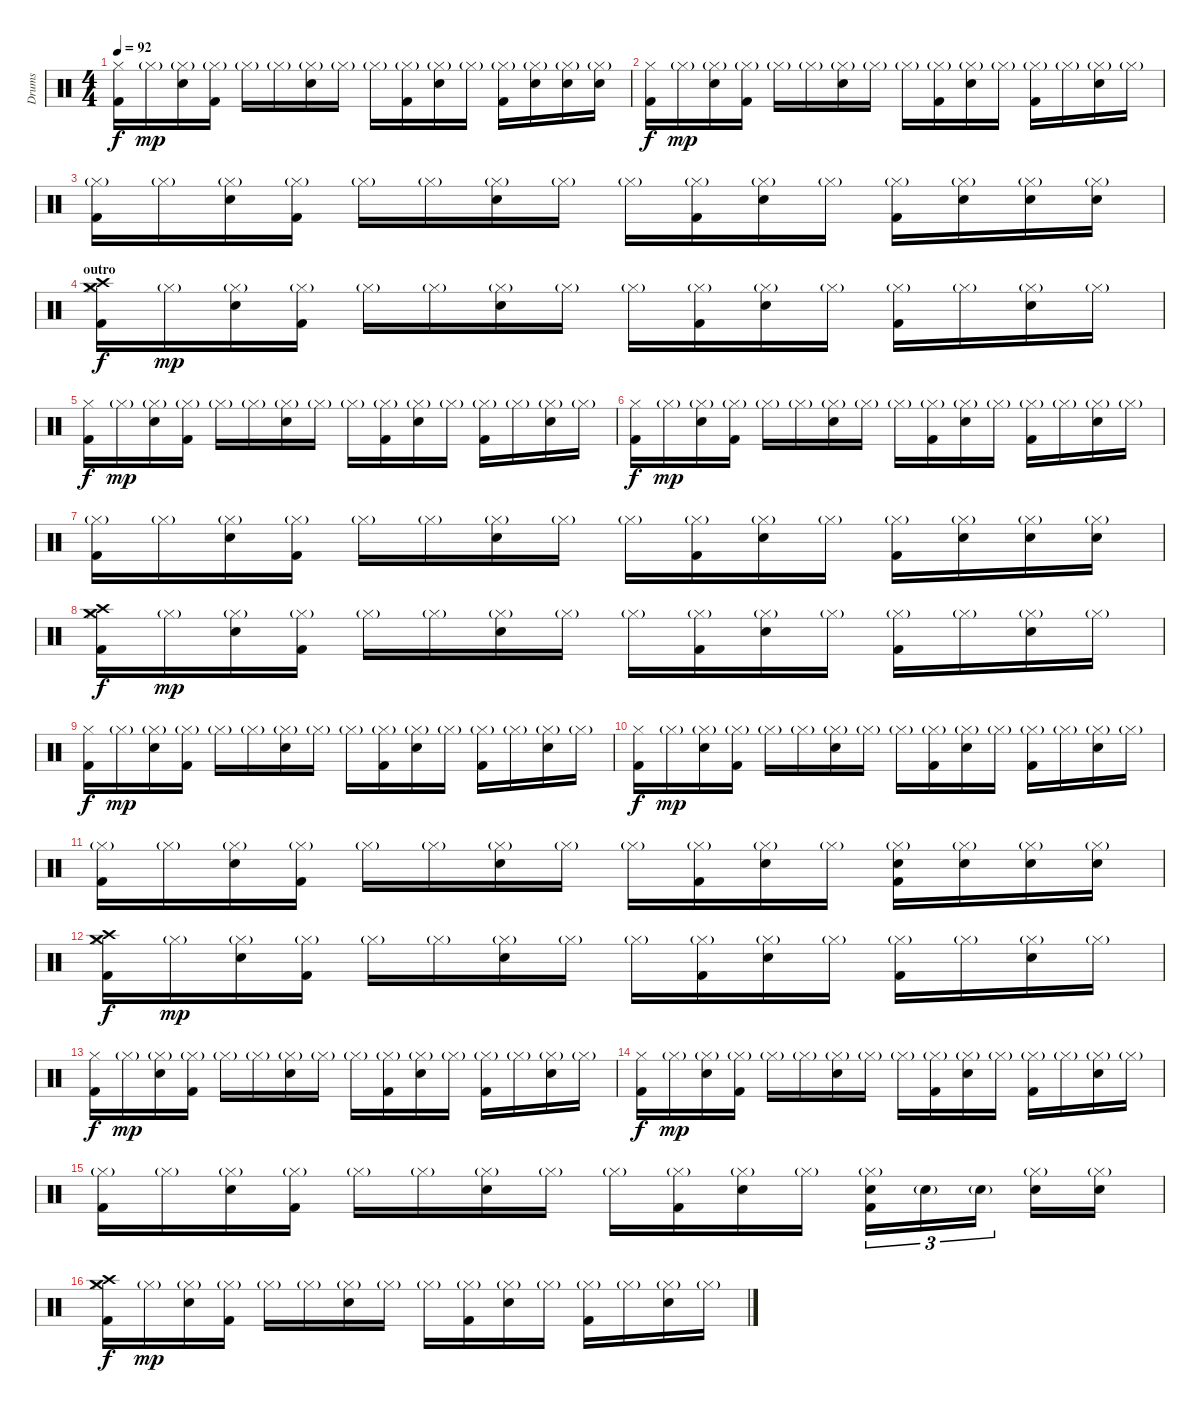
\track ("Drums" "Drums") {instrument percussion}
\staff {score}
\articulation defaults
\ts (4 4)
\tempo 92
\clef neutral
\ks c
("Hi-Hat (closed)" "Kick (hit) 2").16{dy f} "Hi-Hat (closed)"{g}.16{dy mp} ("Hi-Hat (closed)"{g} "Snare (hit) 2").16 ("Hi-Hat (closed)"{g} "Kick (hit) 2").16 "Hi-Hat (closed)"{g}.16 "Hi-Hat (closed)"{g}.16 ("Hi-Hat (closed)"{g} "Snare (hit) 2").16 "Hi-Hat (closed)"{g}.16 "Hi-Hat (closed)"{g}.16 ("Hi-Hat (closed)"{g} "Kick (hit) 2").16 ("Hi-Hat (closed)"{g} "Snare (hit) 2").16 "Hi-Hat (closed)"{g}.16 ("Hi-Hat (closed)"{g} "Kick (hit) 2").16 ("Hi-Hat (closed)"{g} "Snare (hit) 2").16 ("Hi-Hat (closed)"{g} "Snare (hit) 2").16 ("Hi-Hat (closed)"{g} "Snare (hit) 2").16 |
("Hi-Hat (closed)" "Kick (hit) 2").16{dy f} "Hi-Hat (closed)"{g}.16{dy mp} ("Hi-Hat (closed)"{g} "Snare (hit) 2").16 ("Hi-Hat (closed)"{g} "Kick (hit) 2").16 "Hi-Hat (closed)"{g}.16 "Hi-Hat (closed)"{g}.16 ("Hi-Hat (closed)"{g} "Snare (hit) 2").16 "Hi-Hat (closed)"{g}.16 "Hi-Hat (closed)"{g}.16 ("Hi-Hat (closed)"{g} "Kick (hit) 2").16 ("Hi-Hat (closed)"{g} "Snare (hit) 2").16 "Hi-Hat (closed)"{g}.16 ("Hi-Hat (closed)"{g} "Kick (hit) 2").16 "Hi-Hat (closed)"{g}.16 ("Hi-Hat (closed)"{g} "Snare (hit) 2").16 "Hi-Hat (closed)"{g}.16 |
("Hi-Hat (closed)"{g} "Kick (hit) 2").16 "Hi-Hat (closed)"{g}.16 ("Hi-Hat (closed)"{g} "Snare (hit) 2").16 ("Hi-Hat (closed)"{g} "Kick (hit) 2").16 "Hi-Hat (closed)"{g}.16 "Hi-Hat (closed)"{g}.16 ("Hi-Hat (closed)"{g} "Snare (hit) 2").16 "Hi-Hat (closed)"{g}.16 "Hi-Hat (closed)"{g}.16 ("Hi-Hat (closed)"{g} "Kick (hit) 2").16 ("Hi-Hat (closed)"{g} "Snare (hit) 2").16 "Hi-Hat (closed)"{g}.16 ("Hi-Hat (closed)"{g} "Kick (hit) 2").16 ("Hi-Hat (closed)"{g} "Snare (hit) 2").16 ("Hi-Hat (closed)"{g} "Snare (hit) 2").16 ("Hi-Hat (closed)"{g} "Snare (hit) 2").16 |
\section ("" "outro")
("Hi-Hat (closed)" "Kick (hit) 2" "Crash medium (hit)" "Crash high (hit)").16{dy f} "Hi-Hat (closed)"{g}.16{dy mp} ("Hi-Hat (closed)"{g} "Snare (hit) 2").16 ("Hi-Hat (closed)"{g} "Kick (hit) 2").16 "Hi-Hat (closed)"{g}.16 "Hi-Hat (closed)"{g}.16 ("Hi-Hat (closed)"{g} "Snare (hit) 2").16 "Hi-Hat (closed)"{g}.16 "Hi-Hat (closed)"{g}.16 ("Hi-Hat (closed)"{g} "Kick (hit) 2").16 ("Hi-Hat (closed)"{g} "Snare (hit) 2").16 "Hi-Hat (closed)"{g}.16 ("Hi-Hat (closed)"{g} "Kick (hit) 2").16 "Hi-Hat (closed)"{g}.16 ("Hi-Hat (closed)"{g} "Snare (hit) 2").16 "Hi-Hat (closed)"{g}.16 |
("Hi-Hat (closed)" "Kick (hit) 2").16{dy f} "Hi-Hat (closed)"{g}.16{dy mp} ("Hi-Hat (closed)"{g} "Snare (hit) 2").16 ("Hi-Hat (closed)"{g} "Kick (hit) 2").16 "Hi-Hat (closed)"{g}.16 "Hi-Hat (closed)"{g}.16 ("Hi-Hat (closed)"{g} "Snare (hit) 2").16 "Hi-Hat (closed)"{g}.16 "Hi-Hat (closed)"{g}.16 ("Hi-Hat (closed)"{g} "Kick (hit) 2").16 ("Hi-Hat (closed)"{g} "Snare (hit) 2").16 "Hi-Hat (closed)"{g}.16 ("Hi-Hat (closed)"{g} "Kick (hit) 2").16 "Hi-Hat (closed)"{g}.16 ("Hi-Hat (closed)"{g} "Snare (hit) 2").16 "Hi-Hat (closed)"{g}.16 |
("Hi-Hat (closed)" "Kick (hit) 2").16{dy f} "Hi-Hat (closed)"{g}.16{dy mp} ("Hi-Hat (closed)"{g} "Snare (hit) 2").16 ("Hi-Hat (closed)"{g} "Kick (hit) 2").16 "Hi-Hat (closed)"{g}.16 "Hi-Hat (closed)"{g}.16 ("Hi-Hat (closed)"{g} "Snare (hit) 2").16 "Hi-Hat (closed)"{g}.16 "Hi-Hat (closed)"{g}.16 ("Hi-Hat (closed)"{g} "Kick (hit) 2").16 ("Hi-Hat (closed)"{g} "Snare (hit) 2").16 "Hi-Hat (closed)"{g}.16 ("Hi-Hat (closed)"{g} "Kick (hit) 2").16 "Hi-Hat (closed)"{g}.16 ("Hi-Hat (closed)"{g} "Snare (hit) 2").16 "Hi-Hat (closed)"{g}.16 |
("Hi-Hat (closed)"{g} "Kick (hit) 2").16 "Hi-Hat (closed)"{g}.16 ("Hi-Hat (closed)"{g} "Snare (hit) 2").16 ("Hi-Hat (closed)"{g} "Kick (hit) 2").16 "Hi-Hat (closed)"{g}.16 "Hi-Hat (closed)"{g}.16 ("Hi-Hat (closed)"{g} "Snare (hit) 2").16 "Hi-Hat (closed)"{g}.16 "Hi-Hat (closed)"{g}.16 ("Hi-Hat (closed)"{g} "Kick (hit) 2").16 ("Hi-Hat (closed)"{g} "Snare (hit) 2").16 "Hi-Hat (closed)"{g}.16 ("Hi-Hat (closed)"{g} "Kick (hit) 2").16 ("Hi-Hat (closed)"{g} "Snare (hit) 2").16 ("Hi-Hat (closed)"{g} "Snare (hit) 2").16 ("Hi-Hat (closed)"{g} "Snare (hit) 2").16 |
("Hi-Hat (closed)" "Kick (hit) 2" "Crash medium (hit)" "Crash high (hit)").16{dy f} "Hi-Hat (closed)"{g}.16{dy mp} ("Hi-Hat (closed)"{g} "Snare (hit) 2").16 ("Hi-Hat (closed)"{g} "Kick (hit) 2").16 "Hi-Hat (closed)"{g}.16 "Hi-Hat (closed)"{g}.16 ("Hi-Hat (closed)"{g} "Snare (hit) 2").16 "Hi-Hat (closed)"{g}.16 "Hi-Hat (closed)"{g}.16 ("Hi-Hat (closed)"{g} "Kick (hit) 2").16 ("Hi-Hat (closed)"{g} "Snare (hit) 2").16 "Hi-Hat (closed)"{g}.16 ("Hi-Hat (closed)"{g} "Kick (hit) 2").16 "Hi-Hat (closed)"{g}.16 ("Hi-Hat (closed)"{g} "Snare (hit) 2").16 "Hi-Hat (closed)"{g}.16 |
("Hi-Hat (closed)" "Kick (hit) 2").16{dy f} "Hi-Hat (closed)"{g}.16{dy mp} ("Hi-Hat (closed)"{g} "Snare (hit) 2").16 ("Hi-Hat (closed)"{g} "Kick (hit) 2").16 "Hi-Hat (closed)"{g}.16 "Hi-Hat (closed)"{g}.16 ("Hi-Hat (closed)"{g} "Snare (hit) 2").16 "Hi-Hat (closed)"{g}.16 "Hi-Hat (closed)"{g}.16 ("Hi-Hat (closed)"{g} "Kick (hit) 2").16 ("Hi-Hat (closed)"{g} "Snare (hit) 2").16 "Hi-Hat (closed)"{g}.16 ("Hi-Hat (closed)"{g} "Kick (hit) 2").16 "Hi-Hat (closed)"{g}.16 ("Hi-Hat (closed)"{g} "Snare (hit) 2").16 "Hi-Hat (closed)"{g}.16 |
("Hi-Hat (closed)" "Kick (hit) 2").16{dy f} "Hi-Hat (closed)"{g}.16{dy mp} ("Hi-Hat (closed)"{g} "Snare (hit) 2").16 ("Hi-Hat (closed)"{g} "Kick (hit) 2").16 "Hi-Hat (closed)"{g}.16 "Hi-Hat (closed)"{g}.16 ("Hi-Hat (closed)"{g} "Snare (hit) 2").16 "Hi-Hat (closed)"{g}.16 "Hi-Hat (closed)"{g}.16 ("Hi-Hat (closed)"{g} "Kick (hit) 2").16 ("Hi-Hat (closed)"{g} "Snare (hit) 2").16 "Hi-Hat (closed)"{g}.16 ("Hi-Hat (closed)"{g} "Kick (hit) 2").16 "Hi-Hat (closed)"{g}.16 ("Hi-Hat (closed)"{g} "Snare (hit) 2").16 "Hi-Hat (closed)"{g}.16 |
("Hi-Hat (closed)"{g} "Kick (hit) 2").16 "Hi-Hat (closed)"{g}.16 ("Hi-Hat (closed)"{g} "Snare (hit) 2").16 ("Hi-Hat (closed)"{g} "Kick (hit) 2").16 "Hi-Hat (closed)"{g}.16 "Hi-Hat (closed)"{g}.16 ("Hi-Hat (closed)"{g} "Snare (hit) 2").16 "Hi-Hat (closed)"{g}.16 "Hi-Hat (closed)"{g}.16 ("Hi-Hat (closed)"{g} "Kick (hit) 2").16 ("Hi-Hat (closed)"{g} "Snare (hit) 2").16 "Hi-Hat (closed)"{g}.16 ("Hi-Hat (closed)"{g} "Kick (hit) 2" "Snare (hit) 2").16 ("Hi-Hat (closed)"{g} "Snare (hit) 2").16 ("Hi-Hat (closed)"{g} "Snare (hit) 2").16 ("Hi-Hat (closed)"{g} "Snare (hit) 2").16 |
("Hi-Hat (closed)" "Kick (hit) 2" "Crash medium (hit)" "Crash high (hit)").16{dy f} "Hi-Hat (closed)"{g}.16{dy mp} ("Hi-Hat (closed)"{g} "Snare (hit) 2").16 ("Hi-Hat (closed)"{g} "Kick (hit) 2").16 "Hi-Hat (closed)"{g}.16 "Hi-Hat (closed)"{g}.16 ("Hi-Hat (closed)"{g} "Snare (hit) 2").16 "Hi-Hat (closed)"{g}.16 "Hi-Hat (closed)"{g}.16 ("Hi-Hat (closed)"{g} "Kick (hit) 2").16 ("Hi-Hat (closed)"{g} "Snare (hit) 2").16 "Hi-Hat (closed)"{g}.16 ("Hi-Hat (closed)"{g} "Kick (hit) 2").16 "Hi-Hat (closed)"{g}.16 ("Hi-Hat (closed)"{g} "Snare (hit) 2").16 "Hi-Hat (closed)"{g}.16 |
("Hi-Hat (closed)" "Kick (hit) 2").16{dy f} "Hi-Hat (closed)"{g}.16{dy mp} ("Hi-Hat (closed)"{g} "Snare (hit) 2").16 ("Hi-Hat (closed)"{g} "Kick (hit) 2").16 "Hi-Hat (closed)"{g}.16 "Hi-Hat (closed)"{g}.16 ("Hi-Hat (closed)"{g} "Snare (hit) 2").16 "Hi-Hat (closed)"{g}.16 "Hi-Hat (closed)"{g}.16 ("Hi-Hat (closed)"{g} "Kick (hit) 2").16 ("Hi-Hat (closed)"{g} "Snare (hit) 2").16 "Hi-Hat (closed)"{g}.16 ("Hi-Hat (closed)"{g} "Kick (hit) 2").16 "Hi-Hat (closed)"{g}.16 ("Hi-Hat (closed)"{g} "Snare (hit) 2").16 "Hi-Hat (closed)"{g}.16 |
("Hi-Hat (closed)" "Kick (hit) 2").16{dy f} "Hi-Hat (closed)"{g}.16{dy mp} ("Hi-Hat (closed)"{g} "Snare (hit) 2").16 ("Hi-Hat (closed)"{g} "Kick (hit) 2").16 "Hi-Hat (closed)"{g}.16 "Hi-Hat (closed)"{g}.16 ("Hi-Hat (closed)"{g} "Snare (hit) 2").16 "Hi-Hat (closed)"{g}.16 "Hi-Hat (closed)"{g}.16 ("Hi-Hat (closed)"{g} "Kick (hit) 2").16 ("Hi-Hat (closed)"{g} "Snare (hit) 2").16 "Hi-Hat (closed)"{g}.16 ("Hi-Hat (closed)"{g} "Kick (hit) 2").16 "Hi-Hat (closed)"{g}.16 ("Hi-Hat (closed)"{g} "Snare (hit) 2").16 "Hi-Hat (closed)"{g}.16 |
("Hi-Hat (closed)"{g} "Kick (hit) 2").16 "Hi-Hat (closed)"{g}.16 ("Hi-Hat (closed)"{g} "Snare (hit) 2").16 ("Hi-Hat (closed)"{g} "Kick (hit) 2").16 "Hi-Hat (closed)"{g}.16 "Hi-Hat (closed)"{g}.16 ("Hi-Hat (closed)"{g} "Snare (hit) 2").16 "Hi-Hat (closed)"{g}.16 "Hi-Hat (closed)"{g}.16 ("Hi-Hat (closed)"{g} "Kick (hit) 2").16 ("Hi-Hat (closed)"{g} "Snare (hit) 2").16 "Hi-Hat (closed)"{g}.16 ("Hi-Hat (closed)"{g} "Kick (hit) 2" "Snare (hit) 2").16{tu (3 2)} "Snare (hit) 2"{g}.16{tu (3 2)} "Snare (hit) 2"{g}.16{tu (3 2)} ("Hi-Hat (closed)"{g} "Snare (hit) 2").16 ("Hi-Hat (closed)"{g} "Snare (hit) 2").16 |
("Hi-Hat (closed)" "Kick (hit) 2" "Crash medium (hit)" "Crash high (hit)").16{dy f} "Hi-Hat (closed)"{g}.16{dy mp} ("Hi-Hat (closed)"{g} "Snare (hit) 2").16 ("Hi-Hat (closed)"{g} "Kick (hit) 2").16 "Hi-Hat (closed)"{g}.16 "Hi-Hat (closed)"{g}.16 ("Hi-Hat (closed)"{g} "Snare (hit) 2").16 "Hi-Hat (closed)"{g}.16 "Hi-Hat (closed)"{g}.16 ("Hi-Hat (closed)"{g} "Kick (hit) 2").16 ("Hi-Hat (closed)"{g} "Snare (hit) 2").16 "Hi-Hat (closed)"{g}.16 ("Hi-Hat (closed)"{g} "Kick (hit) 2").16 "Hi-Hat (closed)"{g}.16 ("Hi-Hat (closed)"{g} "Snare (hit) 2").16 "Hi-Hat (closed)"{g}.16
